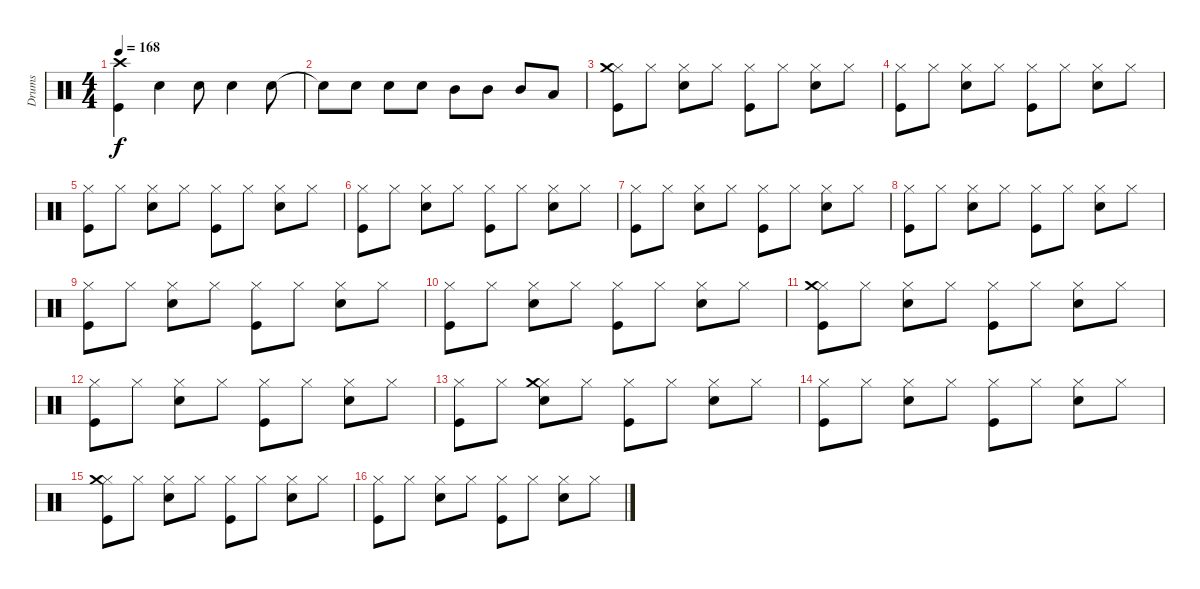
\track ("Drums" "Drums") {instrument percussion}
\staff {score}
\articulation defaults
\ts (4 4)
\tempo 168
\clef neutral
\ks c
("Kick (hit)" "Crash high (hit)").4{dy f} "Snare (hit) 2".4 "Snare (hit) 2".8 "Snare (hit) 2".4 "Snare (hit) 2".8 |
"Snare (hit)"{t}.8 "Snare (hit) 2".8 "Snare (hit) 2".8 "Snare (hit) 2".8 "Mid Tom (hit)".8 "Mid Tom (hit)".8 "Mid Tom (hit)".8 "Low Floor Tom (hit)".8 |
("Kick (hit)" "Hi-Hat (closed)" "Crash medium (hit)").8 "Hi-Hat (closed)".8 ("Snare (hit) 2" "Hi-Hat (closed)").8 "Hi-Hat (closed)".8 ("Kick (hit)" "Hi-Hat (closed)").8 "Hi-Hat (closed)".8 ("Snare (hit) 2" "Hi-Hat (closed)").8 "Hi-Hat (closed)".8 |
("Kick (hit)" "Hi-Hat (closed)").8 "Hi-Hat (closed)".8 ("Snare (hit) 2" "Hi-Hat (closed)").8 "Hi-Hat (closed)".8 ("Kick (hit)" "Hi-Hat (closed)").8 "Hi-Hat (closed)".8 ("Snare (hit) 2" "Hi-Hat (closed)").8 "Hi-Hat (closed)".8 |
("Kick (hit)" "Hi-Hat (closed)").8 "Hi-Hat (closed)".8 ("Snare (hit) 2" "Hi-Hat (closed)").8 "Hi-Hat (closed)".8 ("Kick (hit)" "Hi-Hat (closed)").8 "Hi-Hat (closed)".8 ("Snare (hit) 2" "Hi-Hat (closed)").8 "Hi-Hat (closed)".8 |
("Kick (hit)" "Hi-Hat (closed)").8 "Hi-Hat (closed)".8 ("Snare (hit) 2" "Hi-Hat (closed)").8 "Hi-Hat (closed)".8 ("Kick (hit)" "Hi-Hat (closed)").8 "Hi-Hat (closed)".8 ("Snare (hit) 2" "Hi-Hat (closed)").8 "Hi-Hat (closed)".8 |
("Kick (hit)" "Hi-Hat (closed)").8 "Hi-Hat (closed)".8 ("Snare (hit) 2" "Hi-Hat (closed)").8 "Hi-Hat (closed)".8 ("Kick (hit)" "Hi-Hat (closed)").8 "Hi-Hat (closed)".8 ("Snare (hit) 2" "Hi-Hat (closed)").8 "Hi-Hat (closed)".8 |
("Kick (hit)" "Hi-Hat (closed)").8 "Hi-Hat (closed)".8 ("Snare (hit) 2" "Hi-Hat (closed)").8 "Hi-Hat (closed)".8 ("Kick (hit)" "Hi-Hat (closed)").8 "Hi-Hat (closed)".8 ("Snare (hit) 2" "Hi-Hat (closed)").8 "Hi-Hat (closed)".8 |
("Kick (hit)" "Hi-Hat (closed)").8 "Hi-Hat (closed)".8 ("Snare (hit) 2" "Hi-Hat (closed)").8 "Hi-Hat (closed)".8 ("Kick (hit)" "Hi-Hat (closed)").8 "Hi-Hat (closed)".8 ("Snare (hit) 2" "Hi-Hat (closed)").8 "Hi-Hat (closed)".8 |
("Kick (hit)" "Hi-Hat (closed)").8 "Hi-Hat (closed)".8 ("Snare (hit) 2" "Hi-Hat (closed)").8 "Hi-Hat (closed)".8 ("Kick (hit)" "Hi-Hat (closed)").8 "Hi-Hat (closed)".8 ("Snare (hit) 2" "Hi-Hat (closed)").8 "Hi-Hat (closed)".8 |
("Kick (hit)" "Hi-Hat (closed)" "Crash medium (hit)").8 "Hi-Hat (closed)".8 ("Snare (hit) 2" "Hi-Hat (closed)").8 "Hi-Hat (closed)".8 ("Kick (hit)" "Hi-Hat (closed)").8 "Hi-Hat (closed)".8 ("Snare (hit) 2" "Hi-Hat (closed)").8 "Hi-Hat (closed)".8 |
("Kick (hit)" "Hi-Hat (closed)").8 "Hi-Hat (closed)".8 ("Snare (hit) 2" "Hi-Hat (closed)").8 "Hi-Hat (closed)".8 ("Kick (hit)" "Hi-Hat (closed)").8 "Hi-Hat (closed)".8 ("Snare (hit) 2" "Hi-Hat (closed)").8 "Hi-Hat (closed)".8 |
("Kick (hit)" "Hi-Hat (closed)").8 "Hi-Hat (closed)".8 ("Snare (hit) 2" "Hi-Hat (closed)" "Crash medium (hit)").8 "Hi-Hat (closed)".8 ("Kick (hit)" "Hi-Hat (closed)").8 "Hi-Hat (closed)".8 ("Snare (hit) 2" "Hi-Hat (closed)").8 "Hi-Hat (closed)".8 |
("Kick (hit)" "Hi-Hat (closed)").8 "Hi-Hat (closed)".8 ("Snare (hit) 2" "Hi-Hat (closed)").8 "Hi-Hat (closed)".8 ("Kick (hit)" "Hi-Hat (closed)").8 "Hi-Hat (closed)".8 ("Snare (hit) 2" "Hi-Hat (closed)").8 "Hi-Hat (closed)".8 |
("Kick (hit)" "Hi-Hat (closed)" "Crash medium (hit)").8 "Hi-Hat (closed)".8 ("Snare (hit) 2" "Hi-Hat (closed)").8 "Hi-Hat (closed)".8 ("Kick (hit)" "Hi-Hat (closed)").8 "Hi-Hat (closed)".8 ("Snare (hit) 2" "Hi-Hat (closed)").8 "Hi-Hat (closed)".8 |
("Kick (hit)" "Hi-Hat (closed)").8 "Hi-Hat (closed)".8 ("Snare (hit) 2" "Hi-Hat (closed)").8 "Hi-Hat (closed)".8 ("Kick (hit)" "Hi-Hat (closed)").8 "Hi-Hat (closed)".8 ("Snare (hit) 2" "Hi-Hat (closed)").8 "Hi-Hat (closed)".8
